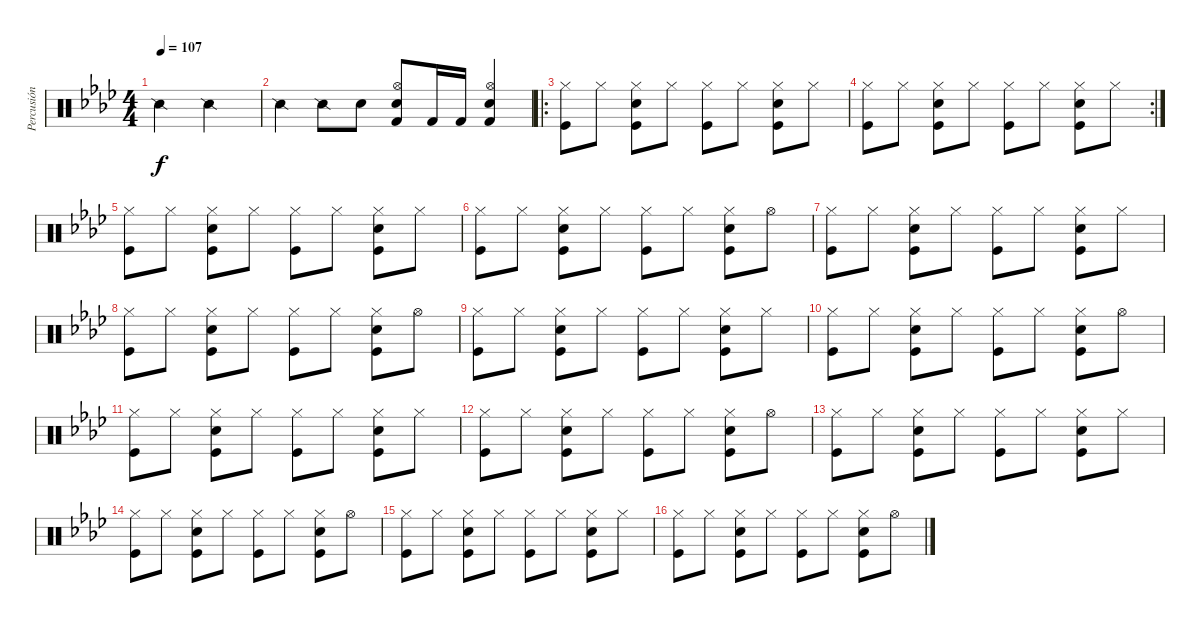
\track ("Percusión" "Percusión") {instrument percussion}
\staff {score}
\articulation defaults
\ts (4 4)
\tempo 107
\clef neutral
\ks ab "Snare (side stick) 2".2{dy f} "Snare (side stick) 2".2
|
"Snare (side stick) 2".4 "Snare (side stick) 2".8 "Snare (hit) 2".8 ("Hi-Hat (open)" "Kick (hit) 2" "Snare (hit) 2").8 "Kick (hit) 2".16 "Kick (hit) 2".16 ("Kick (hit) 2" "Hi-Hat (open)" "Snare (hit) 2").4 |
\ro
("Hi-Hat (closed)" "Kick (hit)").8 "Hi-Hat (closed)".8 ("Hi-Hat (closed)" "Snare (hit) 2" "Kick (hit)").8 "Hi-Hat (closed)".8 ("Hi-Hat (closed)" "Kick (hit)").8 "Hi-Hat (closed)".8 ("Hi-Hat (closed)" "Snare (hit) 2" "Kick (hit)").8 "Hi-Hat (closed)".8 |
\rc 2
("Hi-Hat (closed)" "Kick (hit)").8 "Hi-Hat (closed)".8 ("Hi-Hat (closed)" "Snare (hit) 2" "Kick (hit)").8 "Hi-Hat (closed)".8 ("Hi-Hat (closed)" "Kick (hit)").8 "Hi-Hat (closed)".8 ("Hi-Hat (closed)" "Snare (hit) 2" "Kick (hit)").8 "Hi-Hat (closed)".8 |
("Hi-Hat (closed)" "Kick (hit)").8 "Hi-Hat (closed)".8 ("Hi-Hat (closed)" "Snare (hit) 2" "Kick (hit)").8 "Hi-Hat (closed)".8 ("Hi-Hat (closed)" "Kick (hit)").8 "Hi-Hat (closed)".8 ("Hi-Hat (closed)" "Snare (hit) 2" "Kick (hit)").8 "Hi-Hat (closed)".8 |
("Hi-Hat (closed)" "Kick (hit)").8 "Hi-Hat (closed)".8 ("Hi-Hat (closed)" "Snare (hit) 2" "Kick (hit)").8 "Hi-Hat (closed)".8 ("Hi-Hat (closed)" "Kick (hit)").8 "Hi-Hat (closed)".8 ("Hi-Hat (closed)" "Snare (hit) 2" "Kick (hit)").8 "Hi-Hat (open)".8 |
("Hi-Hat (closed)" "Kick (hit)").8 "Hi-Hat (closed)".8 ("Hi-Hat (closed)" "Snare (hit) 2" "Kick (hit)").8 "Hi-Hat (closed)".8 ("Hi-Hat (closed)" "Kick (hit)").8 "Hi-Hat (closed)".8 ("Hi-Hat (closed)" "Snare (hit) 2" "Kick (hit)").8 "Hi-Hat (closed)".8 |
("Hi-Hat (closed)" "Kick (hit)").8 "Hi-Hat (closed)".8 ("Hi-Hat (closed)" "Snare (hit) 2" "Kick (hit)").8 "Hi-Hat (closed)".8 ("Hi-Hat (closed)" "Kick (hit)").8 "Hi-Hat (closed)".8 ("Hi-Hat (closed)" "Snare (hit) 2" "Kick (hit)").8 "Hi-Hat (open)".8 |
("Hi-Hat (closed)" "Kick (hit)").8 "Hi-Hat (closed)".8 ("Hi-Hat (closed)" "Snare (hit) 2" "Kick (hit)").8 "Hi-Hat (closed)".8 ("Hi-Hat (closed)" "Kick (hit)").8 "Hi-Hat (closed)".8 ("Hi-Hat (closed)" "Snare (hit) 2" "Kick (hit)").8 "Hi-Hat (closed)".8 |
("Hi-Hat (closed)" "Kick (hit)").8 "Hi-Hat (closed)".8 ("Hi-Hat (closed)" "Snare (hit) 2" "Kick (hit)").8 "Hi-Hat (closed)".8 ("Hi-Hat (closed)" "Kick (hit)").8 "Hi-Hat (closed)".8 ("Hi-Hat (closed)" "Snare (hit) 2" "Kick (hit)").8 "Hi-Hat (open)".8 |
("Hi-Hat (closed)" "Kick (hit)").8 "Hi-Hat (closed)".8 ("Hi-Hat (closed)" "Snare (hit) 2" "Kick (hit)").8 "Hi-Hat (closed)".8 ("Hi-Hat (closed)" "Kick (hit)").8 "Hi-Hat (closed)".8 ("Hi-Hat (closed)" "Snare (hit) 2" "Kick (hit)").8 "Hi-Hat (closed)".8 |
("Hi-Hat (closed)" "Kick (hit)").8 "Hi-Hat (closed)".8 ("Hi-Hat (closed)" "Snare (hit) 2" "Kick (hit)").8 "Hi-Hat (closed)".8 ("Hi-Hat (closed)" "Kick (hit)").8 "Hi-Hat (closed)".8 ("Hi-Hat (closed)" "Snare (hit) 2" "Kick (hit)").8 "Hi-Hat (open)".8 |
("Hi-Hat (closed)" "Kick (hit)").8 "Hi-Hat (closed)".8 ("Hi-Hat (closed)" "Snare (hit) 2" "Kick (hit)").8 "Hi-Hat (closed)".8 ("Hi-Hat (closed)" "Kick (hit)").8 "Hi-Hat (closed)".8 ("Hi-Hat (closed)" "Snare (hit) 2" "Kick (hit)").8 "Hi-Hat (closed)".8 |
("Hi-Hat (closed)" "Kick (hit)").8 "Hi-Hat (closed)".8 ("Hi-Hat (closed)" "Snare (hit) 2" "Kick (hit)").8 "Hi-Hat (closed)".8 ("Hi-Hat (closed)" "Kick (hit)").8 "Hi-Hat (closed)".8 ("Hi-Hat (closed)" "Snare (hit) 2" "Kick (hit)").8 "Hi-Hat (open)".8 |
("Hi-Hat (closed)" "Kick (hit)").8 "Hi-Hat (closed)".8 ("Hi-Hat (closed)" "Snare (hit) 2" "Kick (hit)").8 "Hi-Hat (closed)".8 ("Hi-Hat (closed)" "Kick (hit)").8 "Hi-Hat (closed)".8 ("Hi-Hat (closed)" "Snare (hit) 2" "Kick (hit)").8 "Hi-Hat (closed)".8 |
("Hi-Hat (closed)" "Kick (hit)").8 "Hi-Hat (closed)".8 ("Hi-Hat (closed)" "Snare (hit) 2" "Kick (hit)").8 "Hi-Hat (closed)".8 ("Hi-Hat (closed)" "Kick (hit)").8 "Hi-Hat (closed)".8 ("Hi-Hat (closed)" "Snare (hit) 2" "Kick (hit)").8 "Hi-Hat (open)".8
